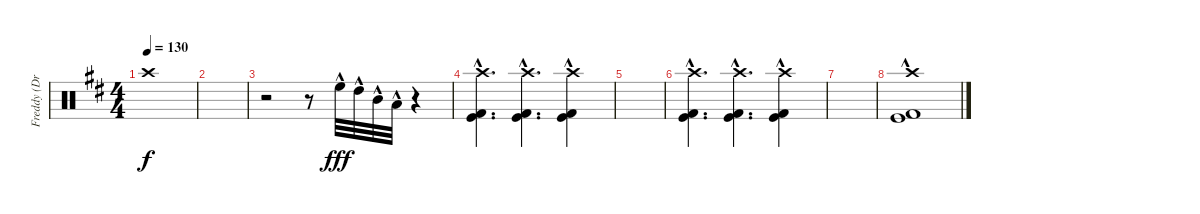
\track ("Freddy (Drums)" "Freddy (Dr") {instrument percussion}
\staff {score}
\articulation defaults
\ts (4 4)
\tempo 130
\clef neutral
\ks d "Crash high (hit)"{t}.1{dy f}
|
|
r.2 r.8 "High Floor Tom (hit)"{hac}.32{dy fff} "High Tom (hit)"{hac}.32 "Mid Tom (hit)"{hac}.32 "Low Tom (hit)"{hac}.32 r.4 |
("Crash high (hit)"{hac} "Kick (hit) 2"{hac} "Kick (hit)"{hac}).4{d} ("Crash high (hit)"{hac} "Kick (hit) 2"{hac} "Kick (hit)"{hac}).4{d} ("Crash high (hit)"{hac} "Kick (hit) 2"{hac} "Kick (hit)"{hac}).4 |
|
("Crash high (hit)"{hac} "Kick (hit) 2"{hac} "Kick (hit)"{hac}).4{d} ("Crash high (hit)"{hac} "Kick (hit) 2"{hac} "Kick (hit)"{hac}).4{d} ("Crash high (hit)"{hac} "Kick (hit) 2"{hac} "Kick (hit)"{hac}).4 |
|
("Crash high (hit)"{hac} "Kick (hit) 2"{hac} "Kick (hit)"{hac}).1
